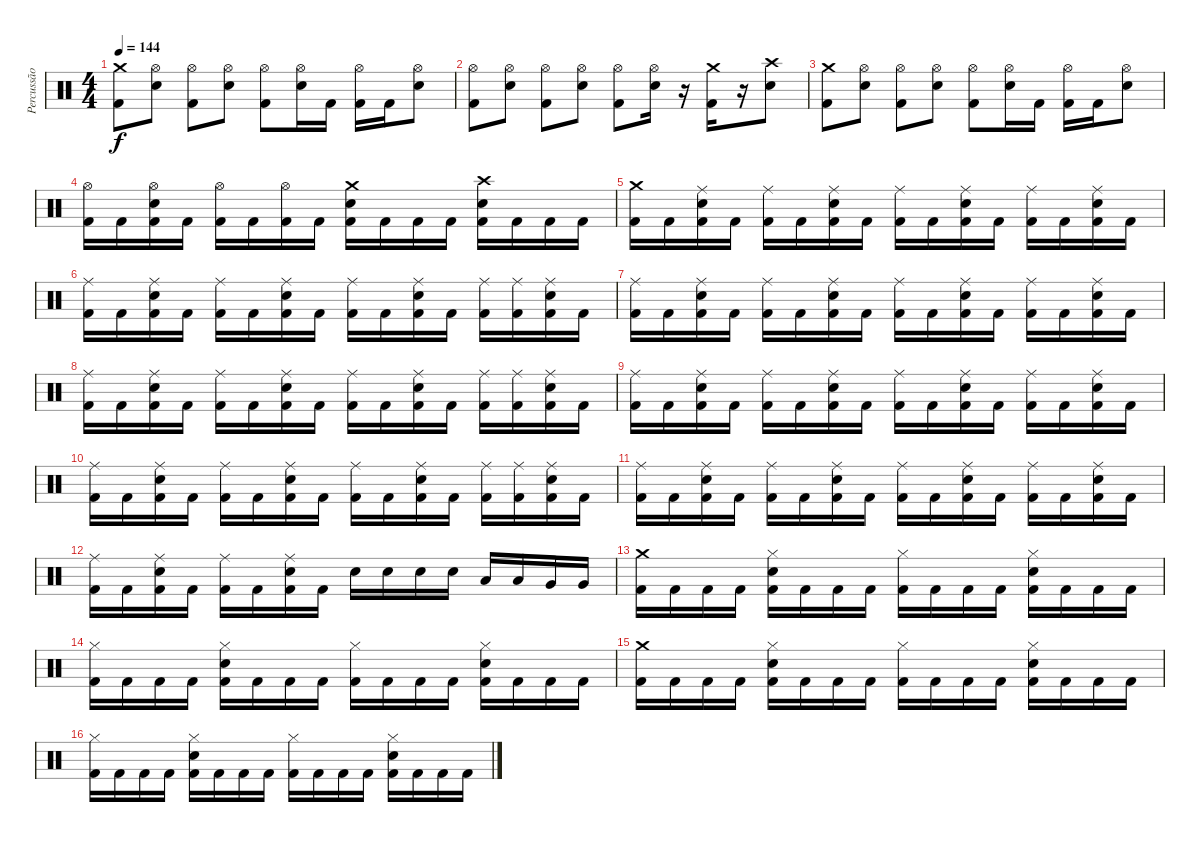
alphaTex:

\track ("Percussão" "Percussão") {instrument percussion}
\staff {score}
\articulation defaults
\ts (4 4)
\tempo 144
\clef neutral
\ks c
("Crash medium (hit)" "Kick (hit) 2").8{dy f} ("Hi-Hat (open)" "Electric Snare (hit)").8 ("Hi-Hat (open)" "Kick (hit) 2").8 ("Hi-Hat (open)" "Electric Snare (hit)").8 ("Hi-Hat (open)" "Kick (hit) 2").8 ("Hi-Hat (open)" "Electric Snare (hit)").16 "Kick (hit) 2".16 ("Hi-Hat (open)" "Kick (hit) 2").16 "Kick (hit) 2".16 ("Hi-Hat (open)" "Electric Snare (hit)").8 |
("Hi-Hat (open)" "Kick (hit) 2").8 ("Hi-Hat (open)" "Electric Snare (hit)").8 ("Hi-Hat (open)" "Kick (hit) 2").8 ("Hi-Hat (open)" "Electric Snare (hit)").8 ("Hi-Hat (open)" "Kick (hit) 2").8 ("Hi-Hat (open)" "Electric Snare (hit)").16 r.16 ("Crash medium (hit)" "Kick (hit) 2").16 r.16 ("Crash high (hit)" "Electric Snare (hit)").8 |
("Crash medium (hit)" "Kick (hit) 2").8 ("Hi-Hat (open)" "Electric Snare (hit)").8 ("Hi-Hat (open)" "Kick (hit) 2").8 ("Hi-Hat (open)" "Electric Snare (hit)").8 ("Hi-Hat (open)" "Kick (hit) 2").8 ("Hi-Hat (open)" "Electric Snare (hit)").16 "Kick (hit) 2".16 ("Hi-Hat (open)" "Kick (hit) 2").16 "Kick (hit) 2".16 ("Hi-Hat (open)" "Electric Snare (hit)").8 |
("Hi-Hat (open)" "Kick (hit) 2").16 "Kick (hit) 2".16 ("Hi-Hat (open)" "Electric Snare (hit)" "Kick (hit) 2").16 "Kick (hit) 2".16 ("Hi-Hat (open)" "Kick (hit) 2").16 "Kick (hit) 2".16 ("Hi-Hat (open)" "Kick (hit) 2").16 "Kick (hit) 2".16 ("Crash medium (hit)" "Electric Snare (hit)" "Kick (hit) 2").16 "Kick (hit) 2".16 "Kick (hit) 2".16 "Kick (hit) 2".16 ("Crash high (hit)" "Electric Snare (hit)" "Kick (hit) 2").16 "Kick (hit) 2".16 "Kick (hit) 2".16 "Kick (hit) 2".16 |
("Crash medium (hit)" "Kick (hit) 2").16 "Kick (hit) 2".16 ("Ride (middle)" "Electric Snare (hit)" "Kick (hit) 2").16 "Kick (hit) 2".16 ("Ride (middle)" "Kick (hit) 2").16 "Kick (hit) 2".16 ("Ride (middle)" "Electric Snare (hit)" "Kick (hit) 2").16 "Kick (hit) 2".16 ("Ride (middle)" "Kick (hit) 2").16 "Kick (hit) 2".16 ("Ride (middle)" "Electric Snare (hit)" "Kick (hit) 2").16 "Kick (hit) 2".16 ("Ride (middle)" "Kick (hit) 2").16 "Kick (hit) 2".16 ("Ride (middle)" "Electric Snare (hit)" "Kick (hit) 2").16 "Kick (hit) 2".16 |
("Ride (middle)" "Kick (hit) 2").16 "Kick (hit) 2".16 ("Ride (middle)" "Electric Snare (hit)" "Kick (hit) 2").16 "Kick (hit) 2".16 ("Ride (middle)" "Kick (hit) 2").16 "Kick (hit) 2".16 ("Ride (middle)" "Electric Snare (hit)" "Kick (hit) 2").16 "Kick (hit) 2".16 ("Ride (middle)" "Kick (hit) 2").16 "Kick (hit) 2".16 ("Ride (middle)" "Electric Snare (hit)" "Kick (hit) 2").16 "Kick (hit) 2".16 ("Ride (middle)" "Kick (hit) 2").16 ("Ride (middle)" "Kick (hit) 2").16 ("Ride (middle)" "Electric Snare (hit)" "Kick (hit) 2").16 "Kick (hit) 2".16 |
("Ride (middle)" "Kick (hit) 2").16 "Kick (hit) 2".16 ("Ride (middle)" "Electric Snare (hit)" "Kick (hit) 2").16 "Kick (hit) 2".16 ("Ride (middle)" "Kick (hit) 2").16 "Kick (hit) 2".16 ("Ride (middle)" "Electric Snare (hit)" "Kick (hit) 2").16 "Kick (hit) 2".16 ("Ride (middle)" "Kick (hit) 2").16 "Kick (hit) 2".16 ("Ride (middle)" "Electric Snare (hit)" "Kick (hit) 2").16 "Kick (hit) 2".16 ("Ride (middle)" "Kick (hit) 2").16 "Kick (hit) 2".16 ("Ride (middle)" "Electric Snare (hit)" "Kick (hit) 2").16 "Kick (hit) 2".16 |
("Ride (middle)" "Kick (hit) 2").16 "Kick (hit) 2".16 ("Ride (middle)" "Electric Snare (hit)" "Kick (hit) 2").16 "Kick (hit) 2".16 ("Ride (middle)" "Kick (hit) 2").16 "Kick (hit) 2".16 ("Ride (middle)" "Electric Snare (hit)" "Kick (hit) 2").16 "Kick (hit) 2".16 ("Ride (middle)" "Kick (hit) 2").16 "Kick (hit) 2".16 ("Ride (middle)" "Electric Snare (hit)" "Kick (hit) 2").16 "Kick (hit) 2".16 ("Ride (middle)" "Kick (hit) 2").16 ("Ride (middle)" "Kick (hit) 2").16 ("Ride (middle)" "Electric Snare (hit)" "Kick (hit) 2").16 "Kick (hit) 2".16 |
("Ride (middle)" "Kick (hit) 2").16 "Kick (hit) 2".16 ("Ride (middle)" "Electric Snare (hit)" "Kick (hit) 2").16 "Kick (hit) 2".16 ("Ride (middle)" "Kick (hit) 2").16 "Kick (hit) 2".16 ("Ride (middle)" "Electric Snare (hit)" "Kick (hit) 2").16 "Kick (hit) 2".16 ("Ride (middle)" "Kick (hit) 2").16 "Kick (hit) 2".16 ("Ride (middle)" "Electric Snare (hit)" "Kick (hit) 2").16 "Kick (hit) 2".16 ("Ride (middle)" "Kick (hit) 2").16 "Kick (hit) 2".16 ("Ride (middle)" "Electric Snare (hit)" "Kick (hit) 2").16 "Kick (hit) 2".16 |
("Ride (middle)" "Kick (hit) 2").16 "Kick (hit) 2".16 ("Ride (middle)" "Electric Snare (hit)" "Kick (hit) 2").16 "Kick (hit) 2".16 ("Ride (middle)" "Kick (hit) 2").16 "Kick (hit) 2".16 ("Ride (middle)" "Electric Snare (hit)" "Kick (hit) 2").16 "Kick (hit) 2".16 ("Ride (middle)" "Kick (hit) 2").16 "Kick (hit) 2".16 ("Ride (middle)" "Electric Snare (hit)" "Kick (hit) 2").16 "Kick (hit) 2".16 ("Ride (middle)" "Kick (hit) 2").16 ("Ride (middle)" "Kick (hit) 2").16 ("Ride (middle)" "Electric Snare (hit)" "Kick (hit) 2").16 "Kick (hit) 2".16 |
("Ride (middle)" "Kick (hit) 2").16 "Kick (hit) 2".16 ("Ride (middle)" "Electric Snare (hit)" "Kick (hit) 2").16 "Kick (hit) 2".16 ("Ride (middle)" "Kick (hit) 2").16 "Kick (hit) 2".16 ("Ride (middle)" "Electric Snare (hit)" "Kick (hit) 2").16 "Kick (hit) 2".16 ("Ride (middle)" "Kick (hit) 2").16 "Kick (hit) 2".16 ("Ride (middle)" "Electric Snare (hit)" "Kick (hit) 2").16 "Kick (hit) 2".16 ("Ride (middle)" "Kick (hit) 2").16 "Kick (hit) 2".16 ("Ride (middle)" "Electric Snare (hit)" "Kick (hit) 2").16 "Kick (hit) 2".16 |
("Ride (middle)" "Kick (hit) 2").16 "Kick (hit) 2".16 ("Ride (middle)" "Electric Snare (hit)" "Kick (hit) 2").16 "Kick (hit) 2".16 ("Ride (middle)" "Kick (hit) 2").16 "Kick (hit) 2".16 ("Ride (middle)" "Electric Snare (hit)" "Kick (hit) 2").16 "Kick (hit) 2".16 "Electric Snare (hit)".16 "Electric Snare (hit)".16 "Electric Snare (hit)".16 "Electric Snare (hit)".16 "Low Tom (hit)".16 "Low Tom (hit)".16 "Very Low Tom (hit)".16 "Very Low Tom (hit)".16 |
("Crash medium (hit)" "Kick (hit) 2").16 "Kick (hit) 2".16 "Kick (hit) 2".16 "Kick (hit) 2".16 ("Hi-Hat (closed)" "Electric Snare (hit)" "Kick (hit) 2").16 "Kick (hit) 2".16 "Kick (hit) 2".16 "Kick (hit) 2".16 ("Hi-Hat (closed)" "Kick (hit) 2").16 "Kick (hit) 2".16 "Kick (hit) 2".16 "Kick (hit) 2".16 ("Hi-Hat (closed)" "Electric Snare (hit)" "Kick (hit) 2").16 "Kick (hit) 2".16 "Kick (hit) 2".16 "Kick (hit) 2".16 |
("Hi-Hat (closed)" "Kick (hit) 2").16 "Kick (hit) 2".16 "Kick (hit) 2".16 "Kick (hit) 2".16 ("Hi-Hat (closed)" "Electric Snare (hit)" "Kick (hit) 2").16 "Kick (hit) 2".16 "Kick (hit) 2".16 "Kick (hit) 2".16 ("Hi-Hat (closed)" "Kick (hit) 2").16 "Kick (hit) 2".16 "Kick (hit) 2".16 "Kick (hit) 2".16 ("Hi-Hat (closed)" "Electric Snare (hit)" "Kick (hit) 2").16 "Kick (hit) 2".16 "Kick (hit) 2".16 "Kick (hit) 2".16 |
("Crash medium (hit)" "Kick (hit) 2").16 "Kick (hit) 2".16 "Kick (hit) 2".16 "Kick (hit) 2".16 ("Hi-Hat (closed)" "Electric Snare (hit)" "Kick (hit) 2").16 "Kick (hit) 2".16 "Kick (hit) 2".16 "Kick (hit) 2".16 ("Hi-Hat (closed)" "Kick (hit) 2").16 "Kick (hit) 2".16 "Kick (hit) 2".16 "Kick (hit) 2".16 ("Hi-Hat (closed)" "Electric Snare (hit)" "Kick (hit) 2").16 "Kick (hit) 2".16 "Kick (hit) 2".16 "Kick (hit) 2".16 |
("Hi-Hat (closed)" "Kick (hit) 2").16 "Kick (hit) 2".16 "Kick (hit) 2".16 "Kick (hit) 2".16 ("Hi-Hat (closed)" "Electric Snare (hit)" "Kick (hit) 2").16 "Kick (hit) 2".16 "Kick (hit) 2".16 "Kick (hit) 2".16 ("Hi-Hat (closed)" "Kick (hit) 2").16 "Kick (hit) 2".16 "Kick (hit) 2".16 "Kick (hit) 2".16 ("Hi-Hat (closed)" "Electric Snare (hit)" "Kick (hit) 2").16 "Kick (hit) 2".16 "Kick (hit) 2".16 "Kick (hit) 2".16
